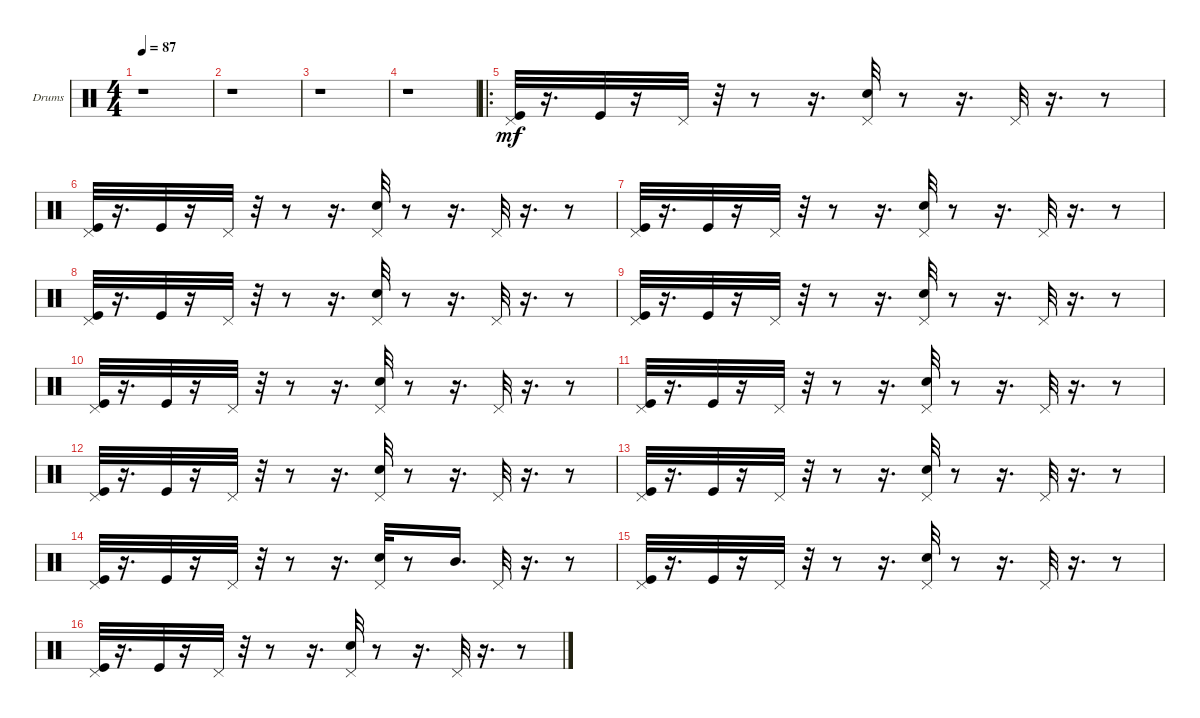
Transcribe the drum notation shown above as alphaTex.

\bracketExtendMode groupsimilarinstruments
\firstSystemTrackNameOrientation horizontal
\otherSystemsTrackNameOrientation horizontal
\track ("weary" "Drums") {solo instrument percussion}
\staff {score}
\articulation defaults
\ts (4 4)
\tempo 87
\clef neutral
\ks c
r.1{dy mf} |
r.1 |
r.1 |
r.1 |
\ro
("Kick (hit)" "Pedal Hi-Hat (hit)").32 r.16{d} "Kick (hit)".32 r.16 "Pedal Hi-Hat (hit)".32 r.32 r.8 r.16{d} ("Snare (hit) 2" "Pedal Hi-Hat (hit)").32 r.8 r.16{d} "Pedal Hi-Hat (hit)".32 r.16{d} r.8 |
("Kick (hit)" "Pedal Hi-Hat (hit)").32 r.16{d} "Kick (hit)".32 r.16 "Pedal Hi-Hat (hit)".32 r.32 r.8 r.16{d} ("Snare (hit) 2" "Pedal Hi-Hat (hit)").32 r.8 r.16{d} "Pedal Hi-Hat (hit)".32 r.16{d} r.8 |
("Kick (hit)" "Pedal Hi-Hat (hit)").32 r.16{d} "Kick (hit)".32 r.16 "Pedal Hi-Hat (hit)".32 r.32 r.8 r.16{d} ("Snare (hit) 2" "Pedal Hi-Hat (hit)").32 r.8 r.16{d} "Pedal Hi-Hat (hit)".32 r.16{d} r.8 |
("Kick (hit)" "Pedal Hi-Hat (hit)").32 r.16{d} "Kick (hit)".32 r.16 "Pedal Hi-Hat (hit)".32 r.32 r.8 r.16{d} ("Snare (hit) 2" "Pedal Hi-Hat (hit)").32 r.8 r.16{d} "Pedal Hi-Hat (hit)".32 r.16{d} r.8 |
("Kick (hit)" "Pedal Hi-Hat (hit)").32 r.16{d} "Kick (hit)".32 r.16 "Pedal Hi-Hat (hit)".32 r.32 r.8 r.16{d} ("Snare (hit) 2" "Pedal Hi-Hat (hit)").32 r.8 r.16{d} "Pedal Hi-Hat (hit)".32 r.16{d} r.8 |
("Kick (hit)" "Pedal Hi-Hat (hit)").32 r.16{d} "Kick (hit)".32 r.16 "Pedal Hi-Hat (hit)".32 r.32 r.8 r.16{d} ("Snare (hit) 2" "Pedal Hi-Hat (hit)").32 r.8 r.16{d} "Pedal Hi-Hat (hit)".32 r.16{d} r.8 |
("Kick (hit)" "Pedal Hi-Hat (hit)").32 r.16{d} "Kick (hit)".32 r.16 "Pedal Hi-Hat (hit)".32 r.32 r.8 r.16{d} ("Snare (hit) 2" "Pedal Hi-Hat (hit)").32 r.8 r.16{d} "Pedal Hi-Hat (hit)".32 r.16{d} r.8 |
("Kick (hit)" "Pedal Hi-Hat (hit)").32 r.16{d} "Kick (hit)".32 r.16 "Pedal Hi-Hat (hit)".32 r.32 r.8 r.16{d} ("Snare (hit) 2" "Pedal Hi-Hat (hit)").32 r.8 r.16{d} "Pedal Hi-Hat (hit)".32 r.16{d} r.8 |
("Kick (hit)" "Pedal Hi-Hat (hit)").32 r.16{d} "Kick (hit)".32 r.16 "Pedal Hi-Hat (hit)".32 r.32 r.8 r.16{d} ("Snare (hit) 2" "Pedal Hi-Hat (hit)").32 r.8 r.16{d} "Pedal Hi-Hat (hit)".32 r.16{d} r.8 |
("Kick (hit)" "Pedal Hi-Hat (hit)").32 r.16{d} "Kick (hit)".32 r.16 "Pedal Hi-Hat (hit)".32 r.32 r.8 r.16{d} ("Snare (hit) 2" "Pedal Hi-Hat (hit)").32 r.8 "Mid Tom (hit)".16{d} "Pedal Hi-Hat (hit)".32 r.16{d} r.8 |
("Kick (hit)" "Pedal Hi-Hat (hit)").32 r.16{d} "Kick (hit)".32 r.16 "Pedal Hi-Hat (hit)".32 r.32 r.8 r.16{d} ("Snare (hit) 2" "Pedal Hi-Hat (hit)").32 r.8 r.16{d} "Pedal Hi-Hat (hit)".32 r.16{d} r.8 |
("Kick (hit)" "Pedal Hi-Hat (hit)").32 r.16{d} "Kick (hit)".32 r.16 "Pedal Hi-Hat (hit)".32 r.32 r.8 r.16{d} ("Snare (hit) 2" "Pedal Hi-Hat (hit)").32 r.8 r.16{d} "Pedal Hi-Hat (hit)".32 r.16{d} r.8
